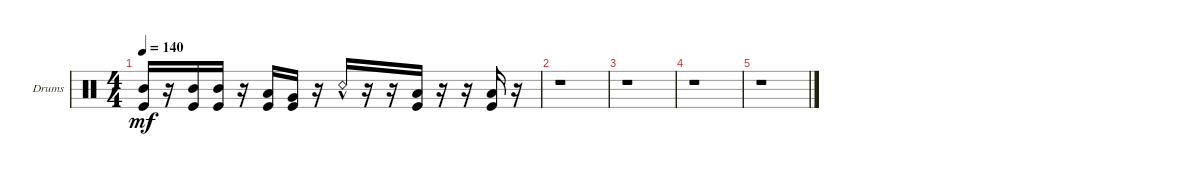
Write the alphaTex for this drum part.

\defaultSystemsLayout 4
\bracketExtendMode groupsimilarinstruments
\firstSystemTrackNameOrientation horizontal
\otherSystemsTrackNameOrientation horizontal
\track ("Effects (Drums) - (Paul)" "Drums") {instrument percussion}
\staff {score}
\articulation defaults
\ts (4 4)
\tempo 140
\clef neutral
\ks c
("Mid Tom (hit)" "Kick (hit)").16{dy mf} r.16 ("Mid Tom (hit)" "Kick (hit)").16 ("Mid Tom (hit)" "Kick (hit)").16 r.16 ("Low Tom (hit)" "Kick (hit)").16 ("Very Low Tom (hit)" "Kick (hit)").16 r.16 "Snare (rim shot)"{hac}.16 r.16 r.16 ("Kick (hit)" "Low Tom (hit)").16 r.16 r.16 ("Kick (hit)" "Low Tom (hit)").16 r.16 |
r.1 |
r.1 |
r.1 |
r.1
